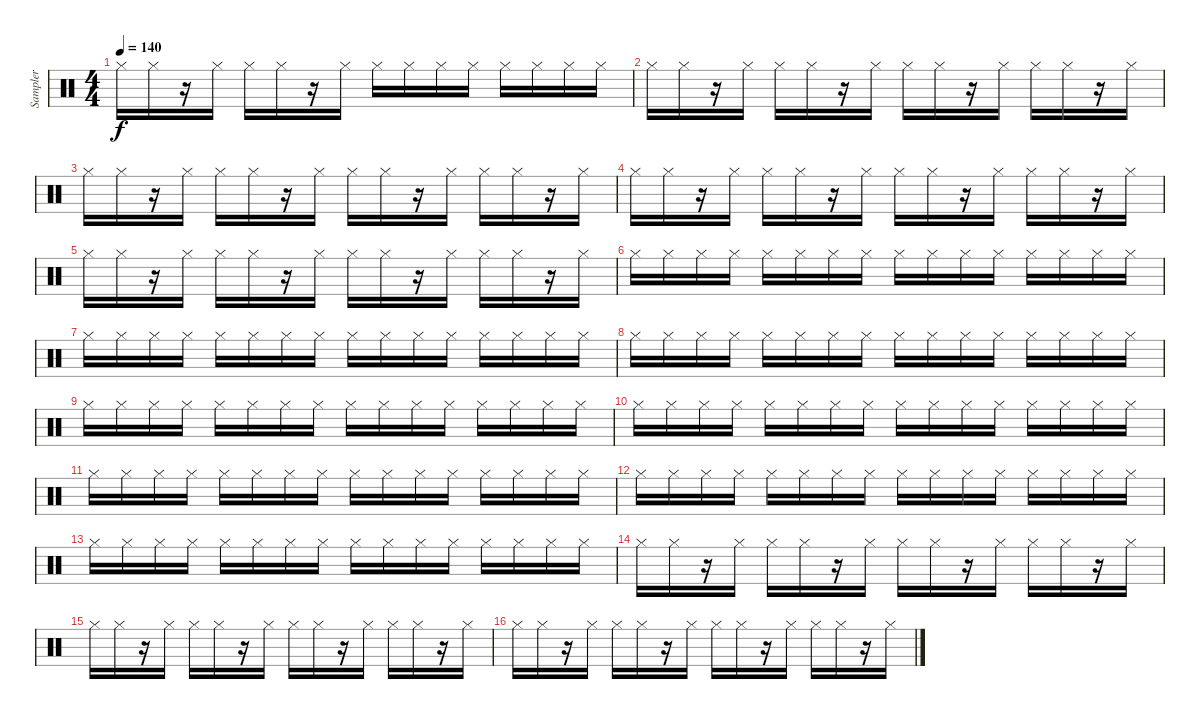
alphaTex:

\track ("Sampler" "Sampler") {instrument percussion}
\staff {score}
\articulation defaults
\ts (4 4)
\tempo 140
\clef neutral
\ks c "Hi-Hat (closed)".16{dy f} "Hi-Hat (closed)".16
r.16 "Hi-Hat (closed)".16 "Hi-Hat (closed)".16 "Hi-Hat (closed)".16 r.16 "Hi-Hat (closed)".16 "Hi-Hat (closed)".16 "Hi-Hat (closed)".16 "Hi-Hat (closed)".16 "Hi-Hat (closed)".16 "Hi-Hat (closed)".16 "Hi-Hat (closed)".16 "Hi-Hat (closed)".16 "Hi-Hat (closed)".16 |
"Hi-Hat (closed)".16 "Hi-Hat (closed)".16 r.16 "Hi-Hat (closed)".16 "Hi-Hat (closed)".16 "Hi-Hat (closed)".16 r.16 "Hi-Hat (closed)".16 "Hi-Hat (closed)".16 "Hi-Hat (closed)".16 r.16 "Hi-Hat (closed)".16 "Hi-Hat (closed)".16 "Hi-Hat (closed)".16 r.16 "Hi-Hat (closed)".16 |
"Hi-Hat (closed)".16 "Hi-Hat (closed)".16 r.16 "Hi-Hat (closed)".16 "Hi-Hat (closed)".16 "Hi-Hat (closed)".16 r.16 "Hi-Hat (closed)".16 "Hi-Hat (closed)".16 "Hi-Hat (closed)".16 r.16 "Hi-Hat (closed)".16 "Hi-Hat (closed)".16 "Hi-Hat (closed)".16 r.16 "Hi-Hat (closed)".16 |
"Hi-Hat (closed)".16 "Hi-Hat (closed)".16 r.16 "Hi-Hat (closed)".16 "Hi-Hat (closed)".16 "Hi-Hat (closed)".16 r.16 "Hi-Hat (closed)".16 "Hi-Hat (closed)".16 "Hi-Hat (closed)".16 r.16 "Hi-Hat (closed)".16 "Hi-Hat (closed)".16 "Hi-Hat (closed)".16 r.16 "Hi-Hat (closed)".16 |
"Hi-Hat (closed)".16 "Hi-Hat (closed)".16 r.16 "Hi-Hat (closed)".16 "Hi-Hat (closed)".16 "Hi-Hat (closed)".16 r.16 "Hi-Hat (closed)".16 "Hi-Hat (closed)".16 "Hi-Hat (closed)".16 r.16 "Hi-Hat (closed)".16 "Hi-Hat (closed)".16 "Hi-Hat (closed)".16 r.16 "Hi-Hat (closed)".16 |
"Hi-Hat (closed)".16 "Hi-Hat (closed)".16 "Hi-Hat (closed)".16 "Hi-Hat (closed)".16 "Hi-Hat (closed)".16 "Hi-Hat (closed)".16 "Hi-Hat (closed)".16 "Hi-Hat (closed)".16 "Hi-Hat (closed)".16 "Hi-Hat (closed)".16 "Hi-Hat (closed)".16 "Hi-Hat (closed)".16 "Hi-Hat (closed)".16 "Hi-Hat (closed)".16 "Hi-Hat (closed)".16 "Hi-Hat (closed)".16 |
"Hi-Hat (closed)".16 "Hi-Hat (closed)".16 "Hi-Hat (closed)".16 "Hi-Hat (closed)".16 "Hi-Hat (closed)".16 "Hi-Hat (closed)".16 "Hi-Hat (closed)".16 "Hi-Hat (closed)".16 "Hi-Hat (closed)".16 "Hi-Hat (closed)".16 "Hi-Hat (closed)".16 "Hi-Hat (closed)".16 "Hi-Hat (closed)".16 "Hi-Hat (closed)".16 "Hi-Hat (closed)".16 "Hi-Hat (closed)".16 |
"Hi-Hat (closed)".16 "Hi-Hat (closed)".16 "Hi-Hat (closed)".16 "Hi-Hat (closed)".16 "Hi-Hat (closed)".16 "Hi-Hat (closed)".16 "Hi-Hat (closed)".16 "Hi-Hat (closed)".16 "Hi-Hat (closed)".16 "Hi-Hat (closed)".16 "Hi-Hat (closed)".16 "Hi-Hat (closed)".16 "Hi-Hat (closed)".16 "Hi-Hat (closed)".16 "Hi-Hat (closed)".16 "Hi-Hat (closed)".16 |
"Hi-Hat (closed)".16 "Hi-Hat (closed)".16 "Hi-Hat (closed)".16 "Hi-Hat (closed)".16 "Hi-Hat (closed)".16 "Hi-Hat (closed)".16 "Hi-Hat (closed)".16 "Hi-Hat (closed)".16 "Hi-Hat (closed)".16 "Hi-Hat (closed)".16 "Hi-Hat (closed)".16 "Hi-Hat (closed)".16 "Hi-Hat (closed)".16 "Hi-Hat (closed)".16 "Hi-Hat (closed)".16 "Hi-Hat (closed)".16 |
"Hi-Hat (closed)".16 "Hi-Hat (closed)".16 "Hi-Hat (closed)".16 "Hi-Hat (closed)".16 "Hi-Hat (closed)".16 "Hi-Hat (closed)".16 "Hi-Hat (closed)".16 "Hi-Hat (closed)".16 "Hi-Hat (closed)".16 "Hi-Hat (closed)".16 "Hi-Hat (closed)".16 "Hi-Hat (closed)".16 "Hi-Hat (closed)".16 "Hi-Hat (closed)".16 "Hi-Hat (closed)".16 "Hi-Hat (closed)".16 |
"Hi-Hat (closed)".16 "Hi-Hat (closed)".16 "Hi-Hat (closed)".16 "Hi-Hat (closed)".16 "Hi-Hat (closed)".16 "Hi-Hat (closed)".16 "Hi-Hat (closed)".16 "Hi-Hat (closed)".16 "Hi-Hat (closed)".16 "Hi-Hat (closed)".16 "Hi-Hat (closed)".16 "Hi-Hat (closed)".16 "Hi-Hat (closed)".16 "Hi-Hat (closed)".16 "Hi-Hat (closed)".16 "Hi-Hat (closed)".16 |
"Hi-Hat (closed)".16 "Hi-Hat (closed)".16 "Hi-Hat (closed)".16 "Hi-Hat (closed)".16 "Hi-Hat (closed)".16 "Hi-Hat (closed)".16 "Hi-Hat (closed)".16 "Hi-Hat (closed)".16 "Hi-Hat (closed)".16 "Hi-Hat (closed)".16 "Hi-Hat (closed)".16 "Hi-Hat (closed)".16 "Hi-Hat (closed)".16 "Hi-Hat (closed)".16 "Hi-Hat (closed)".16 "Hi-Hat (closed)".16 |
"Hi-Hat (closed)".16 "Hi-Hat (closed)".16 "Hi-Hat (closed)".16 "Hi-Hat (closed)".16 "Hi-Hat (closed)".16 "Hi-Hat (closed)".16 "Hi-Hat (closed)".16 "Hi-Hat (closed)".16 "Hi-Hat (closed)".16 "Hi-Hat (closed)".16 "Hi-Hat (closed)".16 "Hi-Hat (closed)".16 "Hi-Hat (closed)".16 "Hi-Hat (closed)".16 "Hi-Hat (closed)".16 "Hi-Hat (closed)".16 |
"Hi-Hat (closed)".16 "Hi-Hat (closed)".16 r.16 "Hi-Hat (closed)".16 "Hi-Hat (closed)".16 "Hi-Hat (closed)".16 r.16 "Hi-Hat (closed)".16 "Hi-Hat (closed)".16 "Hi-Hat (closed)".16 r.16 "Hi-Hat (closed)".16 "Hi-Hat (closed)".16 "Hi-Hat (closed)".16 r.16 "Hi-Hat (closed)".16 |
"Hi-Hat (closed)".16 "Hi-Hat (closed)".16 r.16 "Hi-Hat (closed)".16 "Hi-Hat (closed)".16 "Hi-Hat (closed)".16 r.16 "Hi-Hat (closed)".16 "Hi-Hat (closed)".16 "Hi-Hat (closed)".16 r.16 "Hi-Hat (closed)".16 "Hi-Hat (closed)".16 "Hi-Hat (closed)".16 r.16 "Hi-Hat (closed)".16 |
"Hi-Hat (closed)".16 "Hi-Hat (closed)".16 r.16 "Hi-Hat (closed)".16 "Hi-Hat (closed)".16 "Hi-Hat (closed)".16 r.16 "Hi-Hat (closed)".16 "Hi-Hat (closed)".16 "Hi-Hat (closed)".16 r.16 "Hi-Hat (closed)".16 "Hi-Hat (closed)".16 "Hi-Hat (closed)".16 r.16 "Hi-Hat (closed)".16
